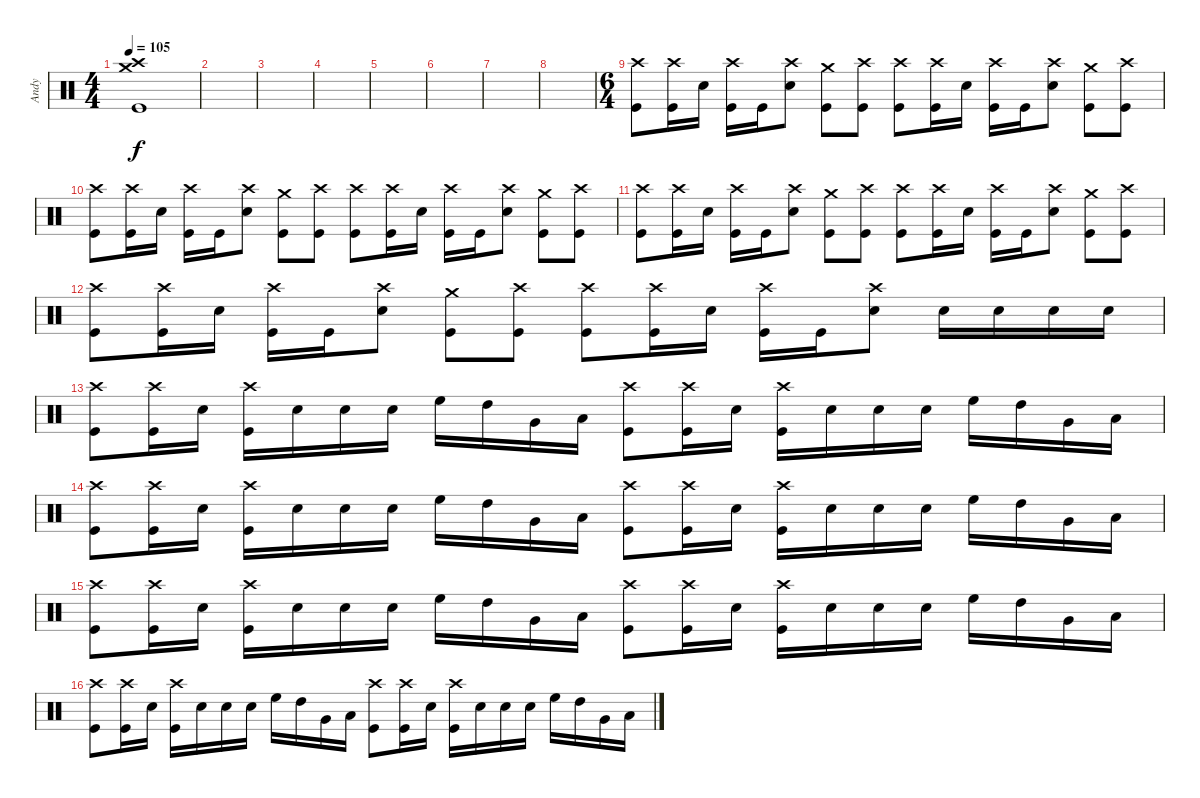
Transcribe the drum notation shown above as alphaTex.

\track ("Andy" "Andy") {instrument percussion}
\staff {score}
\articulation defaults
\ts (4 4)
\tempo 105
\clef neutral
\ks c
("Kick (hit)" "Crash medium (hit)" "Crash high (hit)").1{dy f} |
|
|
|
|
|
|
|
\ts (6 4)
("Kick (hit)" "Crash high (hit)").8 ("Kick (hit)" "Crash high (hit)").16 "Snare (hit) 2".16 ("Kick (hit)" "Crash high (hit)").16 "Kick (hit)".16 ("Snare (hit) 2" "Crash high (hit)").8 ("Kick (hit)" "Crash medium (hit)").8 ("Kick (hit)" "Crash high (hit)").8 ("Kick (hit)" "Crash high (hit)").8 ("Kick (hit)" "Crash high (hit)").16 "Snare (hit) 2".16 ("Kick (hit)" "Crash high (hit)").16 "Kick (hit)".16 ("Snare (hit) 2" "Crash high (hit)").8 ("Kick (hit)" "Crash medium (hit)").8 ("Kick (hit)" "Crash high (hit)").8 |
("Kick (hit)" "Crash high (hit)").8 ("Kick (hit)" "Crash high (hit)").16 "Snare (hit) 2".16 ("Kick (hit)" "Crash high (hit)").16 "Kick (hit)".16 ("Snare (hit) 2" "Crash high (hit)").8 ("Kick (hit)" "Crash medium (hit)").8 ("Kick (hit)" "Crash high (hit)").8 ("Kick (hit)" "Crash high (hit)").8 ("Kick (hit)" "Crash high (hit)").16 "Snare (hit) 2".16 ("Kick (hit)" "Crash high (hit)").16 "Kick (hit)".16 ("Snare (hit) 2" "Crash high (hit)").8 ("Kick (hit)" "Crash medium (hit)").8 ("Kick (hit)" "Crash high (hit)").8 |
("Kick (hit)" "Crash high (hit)").8 ("Kick (hit)" "Crash high (hit)").16 "Snare (hit) 2".16 ("Kick (hit)" "Crash high (hit)").16 "Kick (hit)".16 ("Snare (hit) 2" "Crash high (hit)").8 ("Kick (hit)" "Crash medium (hit)").8 ("Kick (hit)" "Crash high (hit)").8 ("Kick (hit)" "Crash high (hit)").8 ("Kick (hit)" "Crash high (hit)").16 "Snare (hit) 2".16 ("Kick (hit)" "Crash high (hit)").16 "Kick (hit)".16 ("Snare (hit) 2" "Crash high (hit)").8 ("Kick (hit)" "Crash medium (hit)").8 ("Kick (hit)" "Crash high (hit)").8 |
("Kick (hit)" "Crash high (hit)").8 ("Kick (hit)" "Crash high (hit)").16 "Snare (hit) 2".16 ("Kick (hit)" "Crash high (hit)").16 "Kick (hit)".16 ("Snare (hit) 2" "Crash high (hit)").8 ("Kick (hit)" "Crash medium (hit)").8 ("Kick (hit)" "Crash high (hit)").8 ("Kick (hit)" "Crash high (hit)").8 ("Kick (hit)" "Crash high (hit)").16 "Snare (hit) 2".16 ("Kick (hit)" "Crash high (hit)").16 "Kick (hit)".16 ("Snare (hit) 2" "Crash high (hit)").8 "Snare (hit) 2".16 "Snare (hit) 2".16 "Snare (hit) 2".16 "Snare (hit) 2".16 |
("Kick (hit)" "Crash high (hit)").8 ("Kick (hit)" "Crash high (hit)").16 "Snare (hit) 2".16 ("Kick (hit)" "Crash high (hit)").16 "Snare (hit) 2".16 "Snare (hit) 2".16 "Snare (hit) 2".16 "High Floor Tom (hit)".16 "High Tom (hit)".16 "Very Low Tom (hit)".16 "Low Floor Tom (hit)".16 ("Kick (hit)" "Crash high (hit)").8 ("Kick (hit)" "Crash high (hit)").16 "Snare (hit) 2".16 ("Kick (hit)" "Crash high (hit)").16 "Snare (hit) 2".16 "Snare (hit) 2".16 "Snare (hit) 2".16 "High Floor Tom (hit)".16 "High Tom (hit)".16 "Very Low Tom (hit)".16 "Low Floor Tom (hit)".16 |
("Kick (hit)" "Crash high (hit)").8 ("Kick (hit)" "Crash high (hit)").16 "Snare (hit) 2".16 ("Kick (hit)" "Crash high (hit)").16 "Snare (hit) 2".16 "Snare (hit) 2".16 "Snare (hit) 2".16 "High Floor Tom (hit)".16 "High Tom (hit)".16 "Very Low Tom (hit)".16 "Low Floor Tom (hit)".16 ("Kick (hit)" "Crash high (hit)").8 ("Kick (hit)" "Crash high (hit)").16 "Snare (hit) 2".16 ("Kick (hit)" "Crash high (hit)").16 "Snare (hit) 2".16 "Snare (hit) 2".16 "Snare (hit) 2".16 "High Floor Tom (hit)".16 "High Tom (hit)".16 "Very Low Tom (hit)".16 "Low Floor Tom (hit)".16 |
("Kick (hit)" "Crash high (hit)").8 ("Kick (hit)" "Crash high (hit)").16 "Snare (hit) 2".16 ("Kick (hit)" "Crash high (hit)").16 "Snare (hit) 2".16 "Snare (hit) 2".16 "Snare (hit) 2".16 "High Floor Tom (hit)".16 "High Tom (hit)".16 "Very Low Tom (hit)".16 "Low Floor Tom (hit)".16 ("Kick (hit)" "Crash high (hit)").8 ("Kick (hit)" "Crash high (hit)").16 "Snare (hit) 2".16 ("Kick (hit)" "Crash high (hit)").16 "Snare (hit) 2".16 "Snare (hit) 2".16 "Snare (hit) 2".16 "High Floor Tom (hit)".16 "High Tom (hit)".16 "Very Low Tom (hit)".16 "Low Floor Tom (hit)".16 |
("Kick (hit)" "Crash high (hit)").8 ("Kick (hit)" "Crash high (hit)").16 "Snare (hit) 2".16 ("Kick (hit)" "Crash high (hit)").16 "Snare (hit) 2".16 "Snare (hit) 2".16 "Snare (hit) 2".16 "High Floor Tom (hit)".16 "High Tom (hit)".16 "Very Low Tom (hit)".16 "Low Floor Tom (hit)".16 ("Kick (hit)" "Crash high (hit)").8 ("Kick (hit)" "Crash high (hit)").16 "Snare (hit) 2".16 ("Kick (hit)" "Crash high (hit)").16 "Snare (hit) 2".16 "Snare (hit) 2".16 "Snare (hit) 2".16 "High Floor Tom (hit)".16 "High Tom (hit)".16 "Very Low Tom (hit)".16 "Low Floor Tom (hit)".16
